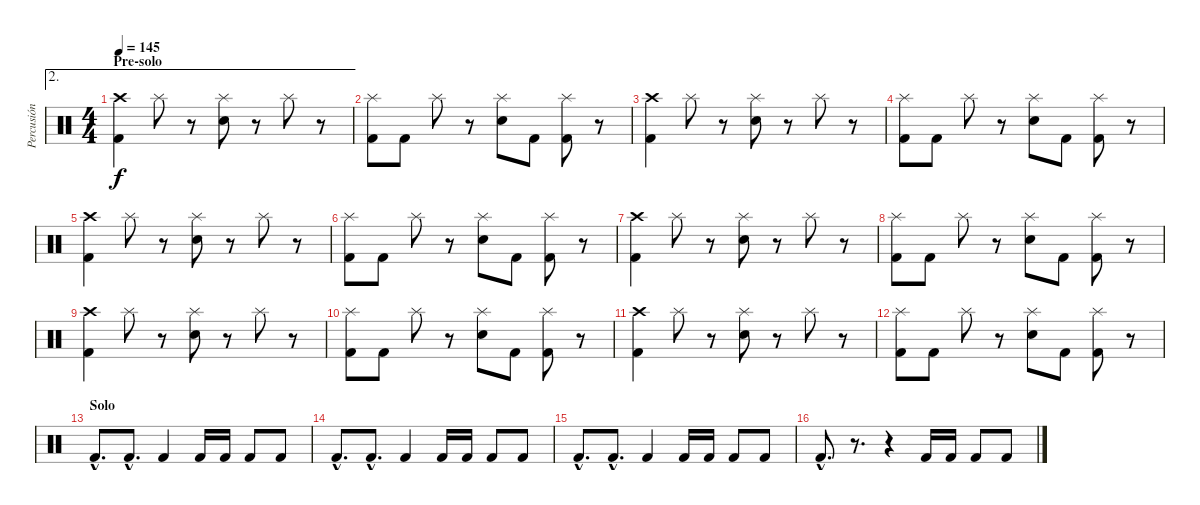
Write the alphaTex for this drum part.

\track ("Percusión" "Percusión") {instrument percussion}
\staff {score}
\articulation defaults
\ae 2
\ts (4 4)
\section ("" "Pre-solo")
\tempo 145
\clef neutral
\ks c
("Crash high (hit)" "Kick (hit) 2").4{dy f} "Splash (hit)".8 r.8 ("Splash (hit)" "Snare (hit) 2").8 r.8 "Splash (hit)".8 r.8 |
("Splash (hit)" "Kick (hit) 2").8 "Kick (hit) 2".8 "Splash (hit)".8 r.8 ("Splash (hit)" "Snare (hit) 2").8 "Kick (hit) 2".8 ("Splash (hit)" "Kick (hit) 2").8 r.8 |
("Crash high (hit)" "Kick (hit) 2").4 "Splash (hit)".8 r.8 ("Splash (hit)" "Snare (hit) 2").8 r.8 "Splash (hit)".8 r.8 |
("Splash (hit)" "Kick (hit) 2").8 "Kick (hit) 2".8 "Splash (hit)".8 r.8 ("Splash (hit)" "Snare (hit) 2").8 "Kick (hit) 2".8 ("Splash (hit)" "Kick (hit) 2").8 r.8 |
("Crash high (hit)" "Kick (hit) 2").4 "Splash (hit)".8 r.8 ("Splash (hit)" "Snare (hit) 2").8 r.8 "Splash (hit)".8 r.8 |
("Splash (hit)" "Kick (hit) 2").8 "Kick (hit) 2".8 "Splash (hit)".8 r.8 ("Splash (hit)" "Snare (hit) 2").8 "Kick (hit) 2".8 ("Splash (hit)" "Kick (hit) 2").8 r.8 |
("Crash high (hit)" "Kick (hit) 2").4 "Splash (hit)".8 r.8 ("Splash (hit)" "Snare (hit) 2").8 r.8 "Splash (hit)".8 r.8 |
("Splash (hit)" "Kick (hit) 2").8 "Kick (hit) 2".8 "Splash (hit)".8 r.8 ("Splash (hit)" "Snare (hit) 2").8 "Kick (hit) 2".8 ("Splash (hit)" "Kick (hit) 2").8 r.8 |
("Crash high (hit)" "Kick (hit) 2").4 "Splash (hit)".8 r.8 ("Splash (hit)" "Snare (hit) 2").8 r.8 "Splash (hit)".8 r.8 |
("Splash (hit)" "Kick (hit) 2").8 "Kick (hit) 2".8 "Splash (hit)".8 r.8 ("Splash (hit)" "Snare (hit) 2").8 "Kick (hit) 2".8 ("Splash (hit)" "Kick (hit) 2").8 r.8 |
("Crash high (hit)" "Kick (hit) 2").4 "Splash (hit)".8 r.8 ("Splash (hit)" "Snare (hit) 2").8 r.8 "Splash (hit)".8 r.8 |
("Splash (hit)" "Kick (hit) 2").8 "Kick (hit) 2".8 "Splash (hit)".8 r.8 ("Splash (hit)" "Snare (hit) 2").8 "Kick (hit) 2".8 ("Splash (hit)" "Kick (hit) 2").8 r.8 |
\section ("" "Solo")
"Kick (hit) 2"{hac}.8{d} "Kick (hit) 2"{hac}.8{d} "Kick (hit) 2".4 "Kick (hit) 2".16 "Kick (hit) 2".16 "Kick (hit) 2".8 "Kick (hit) 2".8 |
"Kick (hit) 2"{hac}.8{d} "Kick (hit) 2"{hac}.8{d} "Kick (hit) 2".4 "Kick (hit) 2".16 "Kick (hit) 2".16 "Kick (hit) 2".8 "Kick (hit) 2".8 |
"Kick (hit) 2"{hac}.8{d} "Kick (hit) 2"{hac}.8{d} "Kick (hit) 2".4 "Kick (hit) 2".16 "Kick (hit) 2".16 "Kick (hit) 2".8 "Kick (hit) 2".8 |
"Kick (hit) 2"{hac}.8{d} r.8{d} r.4 "Kick (hit) 2".16 "Kick (hit) 2".16 "Kick (hit) 2".8 "Kick (hit) 2".8
